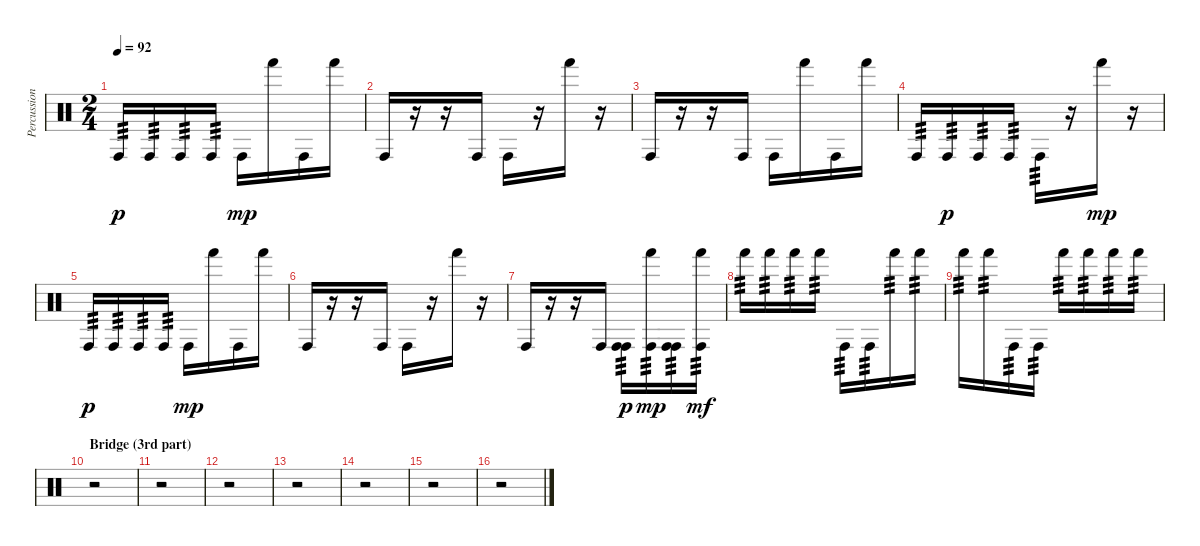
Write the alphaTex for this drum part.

\track ("Percussions" "Percussion") {instrument percussion}
\staff {score}
\articulation defaults
\ts (2 4)
\tempo 92
\clef neutral
\ks c "Conga high (hit)".16{tp 3 dy p} "Conga high (hit)".16{tp 3} "Conga high (hit)".16{tp 3} "Conga high (hit)".16{tp 3} "Conga high (hit)".16{dy mp} "Hand (hit)".16 "Conga high (hit)".16 "Hand (hit)".16
|
"Conga high (hit)".16 r.16 r.16 "Conga high (hit)".16 "Conga high (hit)".16 r.16 "Hand (hit)".16 r.16 |
"Conga high (hit)".16 r.16 r.16 "Conga high (hit)".16 "Conga high (hit)".16 "Hand (hit)".16 "Conga high (hit)".16 "Hand (hit)".16 |
"Conga high (hit)".16{tp 3} "Conga high (hit)".16{tp 3 dy p} "Conga high (hit)".16{tp 3} "Conga high (hit)".16{tp 3} "Conga high (hit)".16{tp 3} r.16 "Hand (hit)".16{dy mp} r.16 |
"Conga high (hit)".16{tp 3 dy p} "Conga high (hit)".16{tp 3} "Conga high (hit)".16{tp 3} "Conga high (hit)".16{tp 3} "Conga high (hit)".16{dy mp} "Hand (hit)".16 "Conga high (hit)".16 "Hand (hit)".16 |
"Conga high (hit)".16 r.16 r.16 "Conga high (hit)".16 "Conga high (hit)".16 r.16 "Hand (hit)".16 r.16 |
"Conga high (hit)".16 r.16 r.16 "Conga high (hit)".16 ("Conga high (hit)" "Conga high (hit)").16{tp 3 dy p} ("Hand (hit)" "Conga high (hit)").16{tp 3 dy mp} ("Conga high (hit)" "Conga high (hit)").16{tp 3} ("Hand (hit)" "Conga high (hit)").16{tp 3 dy mf} |
"Hand (hit)".16{tp 3} "Hand (hit)".16{tp 3} "Hand (hit)".16{tp 3} "Hand (hit)".16{tp 3} "Conga high (hit)".16{tp 3} "Conga high (hit)".16{tp 3} "Hand (hit)".16{tp 3} "Hand (hit)".16{tp 3} |
"Hand (hit)".16{tp 3} "Hand (hit)".16{tp 3} "Conga high (hit)".16{tp 3} "Conga high (hit)".16{tp 3} "Hand (hit)".16{tp 3} "Hand (hit)".16{tp 3} "Hand (hit)".16{tp 3} "Hand (hit)".16{tp 3} |
\section ("" "Bridge (3rd part)")
r.2 |
r.2 |
r.2 |
r.2 |
r.2 |
r.2 |
r.2
